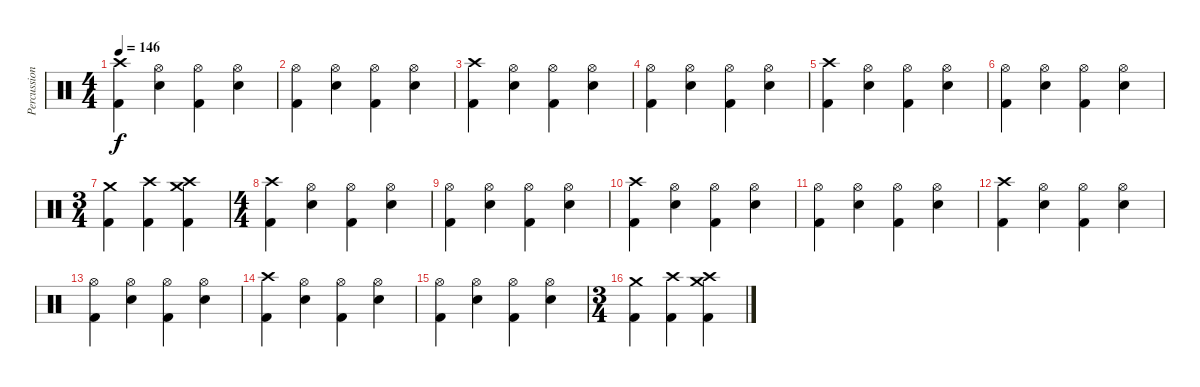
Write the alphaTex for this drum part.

\track ("Percussion(Dr.Spock)" "Percussion") {instrument percussion}
\staff {score}
\articulation defaults
\ts (4 4)
\tempo 146
\clef neutral
\ks c
("Crash high (hit)" "Kick (hit) 2").4{dy f} ("Hi-Hat (open)" "Snare (hit) 2").4 ("Hi-Hat (open)" "Kick (hit) 2").4 ("Hi-Hat (open)" "Snare (hit) 2").4 |
("Hi-Hat (open)" "Kick (hit) 2").4 ("Hi-Hat (open)" "Snare (hit) 2").4 ("Hi-Hat (open)" "Kick (hit) 2").4 ("Hi-Hat (open)" "Snare (hit) 2").4 |
("Crash high (hit)" "Kick (hit) 2").4 ("Hi-Hat (open)" "Snare (hit) 2").4 ("Hi-Hat (open)" "Kick (hit) 2").4 ("Hi-Hat (open)" "Snare (hit) 2").4 |
("Hi-Hat (open)" "Kick (hit) 2").4 ("Hi-Hat (open)" "Snare (hit) 2").4 ("Hi-Hat (open)" "Kick (hit) 2").4 ("Hi-Hat (open)" "Snare (hit) 2").4 |
("Crash high (hit)" "Kick (hit) 2").4 ("Hi-Hat (open)" "Snare (hit) 2").4 ("Hi-Hat (open)" "Kick (hit) 2").4 ("Hi-Hat (open)" "Snare (hit) 2").4 |
("Hi-Hat (open)" "Kick (hit) 2").4 ("Hi-Hat (open)" "Snare (hit) 2").4 ("Hi-Hat (open)" "Kick (hit) 2").4 ("Hi-Hat (open)" "Snare (hit) 2").4 |
\ts (3 4)
("Crash medium (hit)" "Kick (hit) 2").4 ("Crash high (hit)" "Kick (hit) 2").4 ("Crash medium (hit)" "Crash high (hit)" "Kick (hit) 2").4 |
\ts (4 4)
("Crash high (hit)" "Kick (hit) 2").4 ("Hi-Hat (open)" "Snare (hit) 2").4 ("Hi-Hat (open)" "Kick (hit) 2").4 ("Hi-Hat (open)" "Snare (hit) 2").4 |
("Hi-Hat (open)" "Kick (hit) 2").4 ("Hi-Hat (open)" "Snare (hit) 2").4 ("Hi-Hat (open)" "Kick (hit) 2").4 ("Hi-Hat (open)" "Snare (hit) 2").4 |
("Crash high (hit)" "Kick (hit) 2").4 ("Hi-Hat (open)" "Snare (hit) 2").4 ("Hi-Hat (open)" "Kick (hit) 2").4 ("Hi-Hat (open)" "Snare (hit) 2").4 |
("Hi-Hat (open)" "Kick (hit) 2").4 ("Hi-Hat (open)" "Snare (hit) 2").4 ("Hi-Hat (open)" "Kick (hit) 2").4 ("Hi-Hat (open)" "Snare (hit) 2").4 |
("Crash high (hit)" "Kick (hit) 2").4 ("Hi-Hat (open)" "Snare (hit) 2").4 ("Hi-Hat (open)" "Kick (hit) 2").4 ("Hi-Hat (open)" "Snare (hit) 2").4 |
("Hi-Hat (open)" "Kick (hit) 2").4 ("Hi-Hat (open)" "Snare (hit) 2").4 ("Hi-Hat (open)" "Kick (hit) 2").4 ("Hi-Hat (open)" "Snare (hit) 2").4 |
("Crash high (hit)" "Kick (hit) 2").4 ("Hi-Hat (open)" "Snare (hit) 2").4 ("Hi-Hat (open)" "Kick (hit) 2").4 ("Hi-Hat (open)" "Snare (hit) 2").4 |
("Hi-Hat (open)" "Kick (hit) 2").4 ("Hi-Hat (open)" "Snare (hit) 2").4 ("Hi-Hat (open)" "Kick (hit) 2").4 ("Hi-Hat (open)" "Snare (hit) 2").4 |
\ts (3 4)
("Crash medium (hit)" "Kick (hit) 2").4 ("Crash high (hit)" "Kick (hit) 2").4 ("Crash medium (hit)" "Crash high (hit)" "Kick (hit) 2").4
